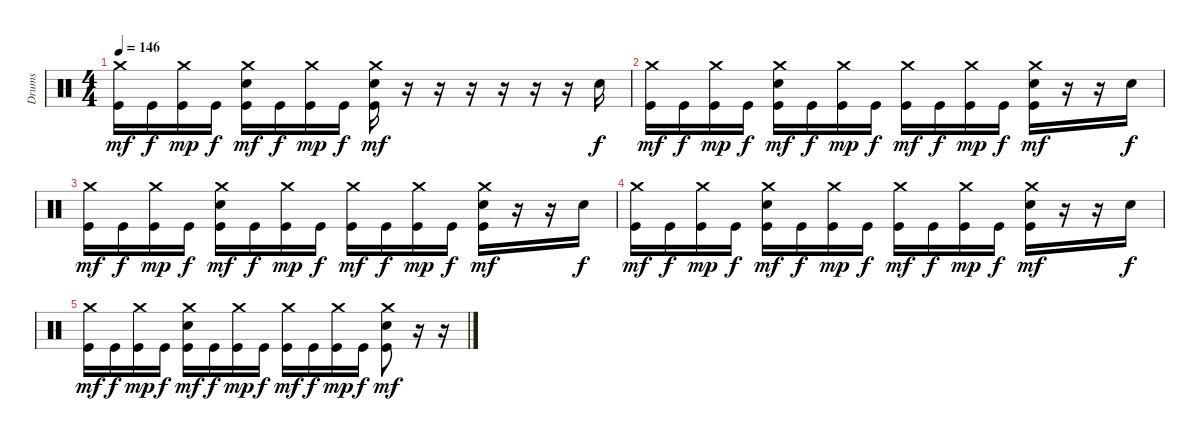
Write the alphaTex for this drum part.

\track ("Drums" "Drums") {instrument percussion}
\staff {score}
\articulation defaults
\ts (4 4)
\tempo 146
\clef neutral
\ks c
("Crash medium (hit)" "Kick (hit)").16{dy mf} "Kick (hit)".16{dy f} ("Crash medium (hit)" "Kick (hit)").16{dy mp} "Kick (hit)".16{dy f} ("Crash medium (hit)" "Snare (hit) 2" "Kick (hit)").16{dy mf} "Kick (hit)".16{dy f} ("Crash medium (hit)" "Kick (hit)").16{dy mp} "Kick (hit)".16{dy f} ("Crash medium (hit)" "Snare (hit) 2" "Kick (hit)").16{dy mf} r.16 r.16 r.16 r.16 r.16 r.16 "Snare (hit) 2".16{dy f} |
("Crash medium (hit)" "Kick (hit)").16{dy mf} "Kick (hit)".16{dy f} ("Crash medium (hit)" "Kick (hit)").16{dy mp} "Kick (hit)".16{dy f} ("Crash medium (hit)" "Snare (hit) 2" "Kick (hit)").16{dy mf} "Kick (hit)".16{dy f} ("Crash medium (hit)" "Kick (hit)").16{dy mp} "Kick (hit)".16{dy f} ("Crash medium (hit)" "Kick (hit)").16{dy mf} "Kick (hit)".16{dy f} ("Crash medium (hit)" "Kick (hit)").16{dy mp} "Kick (hit)".16{dy f} ("Crash medium (hit)" "Snare (hit) 2" "Kick (hit)").16{dy mf} r.16 r.16 "Snare (hit) 2".16{dy f} |
("Crash medium (hit)" "Kick (hit)").16{dy mf} "Kick (hit)".16{dy f} ("Crash medium (hit)" "Kick (hit)").16{dy mp} "Kick (hit)".16{dy f} ("Crash medium (hit)" "Snare (hit) 2" "Kick (hit)").16{dy mf} "Kick (hit)".16{dy f} ("Crash medium (hit)" "Kick (hit)").16{dy mp} "Kick (hit)".16{dy f} ("Crash medium (hit)" "Kick (hit)").16{dy mf} "Kick (hit)".16{dy f} ("Crash medium (hit)" "Kick (hit)").16{dy mp} "Kick (hit)".16{dy f} ("Crash medium (hit)" "Snare (hit) 2" "Kick (hit)").16{dy mf} r.16 r.16 "Snare (hit) 2".16{dy f} |
("Crash medium (hit)" "Kick (hit)").16{dy mf} "Kick (hit)".16{dy f} ("Crash medium (hit)" "Kick (hit)").16{dy mp} "Kick (hit)".16{dy f} ("Crash medium (hit)" "Snare (hit) 2" "Kick (hit)").16{dy mf} "Kick (hit)".16{dy f} ("Crash medium (hit)" "Kick (hit)").16{dy mp} "Kick (hit)".16{dy f} ("Crash medium (hit)" "Kick (hit)").16{dy mf} "Kick (hit)".16{dy f} ("Crash medium (hit)" "Kick (hit)").16{dy mp} "Kick (hit)".16{dy f} ("Crash medium (hit)" "Snare (hit) 2" "Kick (hit)").16{dy mf} r.16 r.16 "Snare (hit) 2".16{dy f} |
("Crash medium (hit)" "Kick (hit)").16{dy mf} "Kick (hit)".16{dy f} ("Crash medium (hit)" "Kick (hit)").16{dy mp} "Kick (hit)".16{dy f} ("Crash medium (hit)" "Snare (hit) 2" "Kick (hit)").16{dy mf} "Kick (hit)".16{dy f} ("Crash medium (hit)" "Kick (hit)").16{dy mp} "Kick (hit)".16{dy f} ("Crash medium (hit)" "Kick (hit)").16{dy mf} "Kick (hit)".16{dy f} ("Crash medium (hit)" "Kick (hit)").16{dy mp} "Kick (hit)".16{dy f} ("Crash medium (hit)" "Snare (hit) 2" "Kick (hit)").8{dy mf} r.16 r.16
